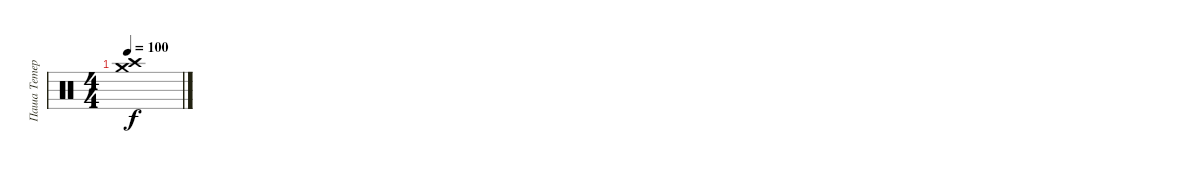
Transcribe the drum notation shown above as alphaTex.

\track ("Паша Тетерин" "Паша Тетер") {instrument percussion}
\staff {score}
\articulation defaults
\ts (4 4)
\tempo 100
\clef neutral
\ks c
("Crash medium (hit)" "Crash high (hit)").1{dy f}
